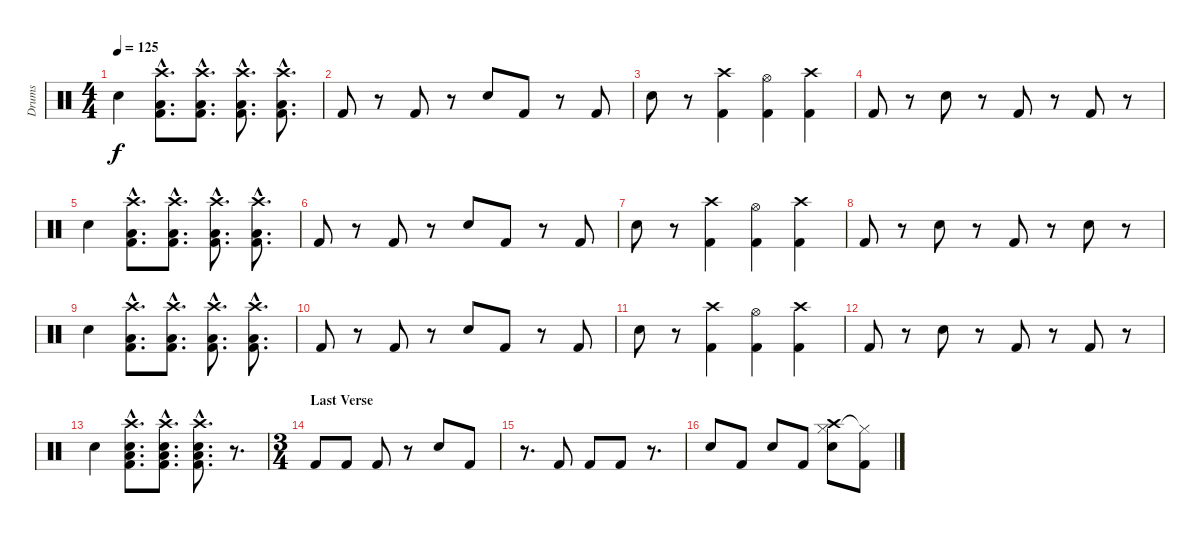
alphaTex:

\track ("Drums" "Drums") {instrument percussion}
\staff {score}
\articulation defaults
\ts (4 4)
\tempo 125
\clef neutral
\ks c "Snare (hit) 2".4{dy f}
("Kick (hit) 2"{hac} "Low Tom (hit)"{hac} "Crash high (hit)"{hac}).8{d} ("Kick (hit) 2"{hac} "Low Tom (hit)"{hac} "Crash high (hit)"{hac}).8{d} ("Kick (hit) 2"{hac} "Low Tom (hit)"{hac} "Crash high (hit)"{hac}).8{d} ("Kick (hit) 2"{hac} "Low Tom (hit)"{hac} "Crash high (hit)"{hac}).8{d} |
"Kick (hit) 2".8 r.8 "Kick (hit) 2".8 r.8 "Snare (hit) 2".8 "Kick (hit) 2".8 r.8 "Kick (hit) 2".8 |
"Snare (hit) 2".8 r.8 ("Kick (hit) 2" "Crash high (hit)").4 ("Kick (hit) 2" "Hi-Hat (open)").4 ("Kick (hit) 2" "Crash high (hit)").4 |
"Kick (hit) 2".8 r.8 "Snare (hit) 2".8 r.8 "Kick (hit) 2".8 r.8 "Kick (hit) 2".8 r.8 |
"Snare (hit) 2".4 ("Kick (hit) 2"{hac} "Low Tom (hit)"{hac} "Crash high (hit)"{hac}).8{d} ("Kick (hit) 2"{hac} "Low Tom (hit)"{hac} "Crash high (hit)"{hac}).8{d} ("Kick (hit) 2"{hac} "Low Tom (hit)"{hac} "Crash high (hit)"{hac}).8{d} ("Kick (hit) 2"{hac} "Low Tom (hit)"{hac} "Crash high (hit)"{hac}).8{d} |
"Kick (hit) 2".8 r.8 "Kick (hit) 2".8 r.8 "Snare (hit) 2".8 "Kick (hit) 2".8 r.8 "Kick (hit) 2".8 |
"Snare (hit) 2".8 r.8 ("Kick (hit) 2" "Crash high (hit)").4 ("Kick (hit) 2" "Hi-Hat (open)").4 ("Kick (hit) 2" "Crash high (hit)").4 |
"Kick (hit) 2".8 r.8 "Snare (hit) 2".8 r.8 "Kick (hit) 2".8 r.8 "Snare (hit) 2".8 r.8 |
"Snare (hit) 2".4 ("Kick (hit) 2"{hac} "Low Tom (hit)"{hac} "Crash high (hit)"{hac}).8{d} ("Kick (hit) 2"{hac} "Low Tom (hit)"{hac} "Crash high (hit)"{hac}).8{d} ("Kick (hit) 2"{hac} "Low Tom (hit)"{hac} "Crash high (hit)"{hac}).8{d} ("Kick (hit) 2"{hac} "Low Tom (hit)"{hac} "Crash high (hit)"{hac}).8{d} |
"Kick (hit) 2".8 r.8 "Kick (hit) 2".8 r.8 "Snare (hit) 2".8 "Kick (hit) 2".8 r.8 "Kick (hit) 2".8 |
"Snare (hit) 2".8 r.8 ("Kick (hit) 2" "Crash high (hit)").4 ("Kick (hit) 2" "Hi-Hat (open)").4 ("Kick (hit) 2" "Crash high (hit)").4 |
"Kick (hit) 2".8 r.8 "Snare (hit) 2".8 r.8 "Kick (hit) 2".8 r.8 "Kick (hit) 2".8 r.8 |
"Snare (hit) 2".4 ("Snare (hit) 2"{hac} "Kick (hit) 2"{hac} "Low Tom (hit)"{hac} "Crash high (hit)"{hac}).8{d} ("Snare (hit) 2"{hac} "Kick (hit) 2"{hac} "Low Tom (hit)"{hac} "Crash high (hit)"{hac}).8{d} ("Snare (hit) 2"{hac} "Kick (hit) 2"{hac} "Low Tom (hit)"{hac} "Crash high (hit)"{hac}).8{d} r.8{d} |
\ts (3 4)
\section ("" "Last Verse")
"Kick (hit) 2".8 "Kick (hit) 2".8 "Kick (hit) 2".8 r.8 "Snare (hit) 2".8 "Kick (hit) 2".8 |
r.8{d} "Kick (hit) 2".8 "Kick (hit) 2".8 "Kick (hit) 2".8 r.8{d} |
"Snare (hit) 2".8 "Kick (hit) 2".8 "Snare (hit) 2".8 "Kick (hit) 2".8 ("Hi-Hat (closed)" "Snare (hit) 2" "Crash high (hit)").8 ("Hi-Hat (closed)"{t} "Kick (hit) 2").8
